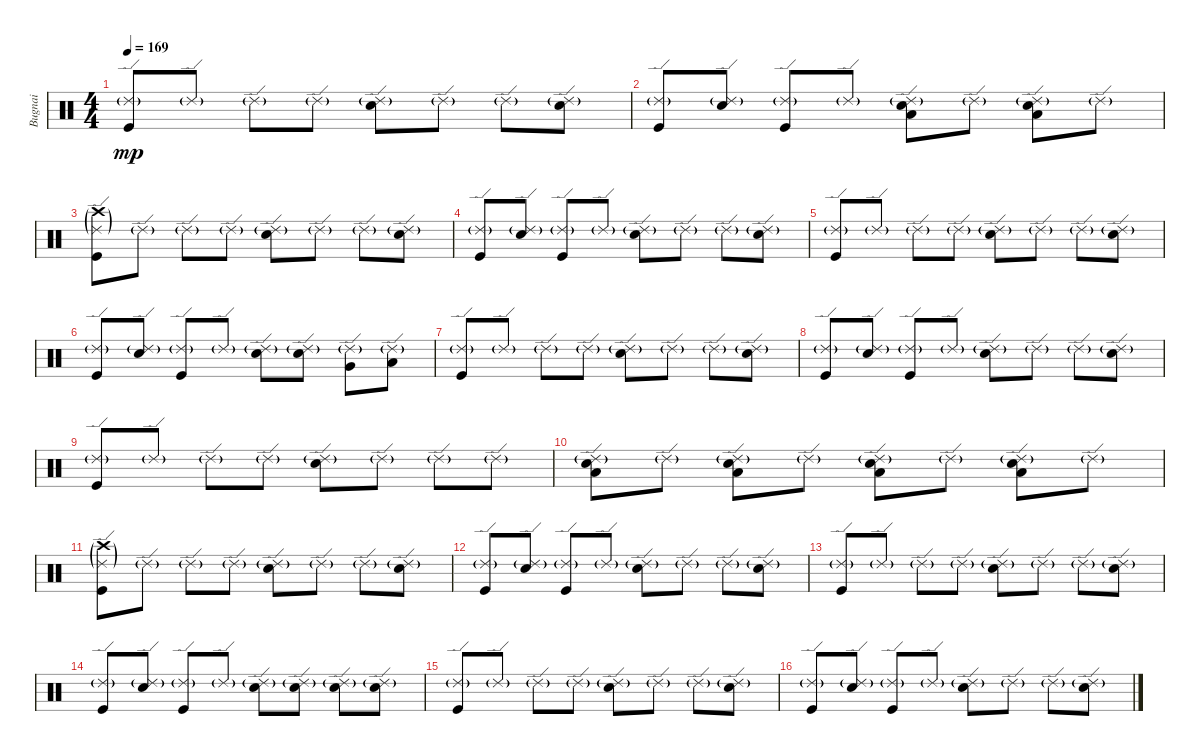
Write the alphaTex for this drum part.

\track ("Bugnai" "Bugnai") {instrument percussion}
\staff {score}
\articulation defaults
\ts (4 4)
\tempo 169
\clef neutral
\ks c
("Ride (edge) 2"{g} "Kick (hit)").8{dy mp} "Ride (edge) 2"{g}.8 "Ride (edge) 2"{g}.8 "Ride (edge) 2"{g}.8 ("Ride (edge) 2"{g} "Snare (hit) 2").8 "Ride (edge) 2"{g}.8 "Ride (edge) 2"{g}.8 ("Ride (edge) 2"{g} "Snare (hit) 2").8 |
("Ride (edge) 2"{g} "Kick (hit)").8 ("Ride (edge) 2"{g} "Snare (hit) 2").8 ("Ride (edge) 2"{g} "Kick (hit)").8 "Ride (edge) 2"{g}.8 ("Ride (edge) 2"{g} "Snare (hit) 2" "Low Tom (hit)").8 "Ride (edge) 2"{g}.8 ("Ride (edge) 2"{g} "Snare (hit) 2" "Low Tom (hit)").8 "Ride (edge) 2"{g}.8 |
("Ride (edge) 2"{g} "Crash high (hit)"{g} "Kick (hit)").8 "Ride (edge) 2"{g}.8 "Ride (edge) 2"{g}.8 "Ride (edge) 2"{g}.8 ("Ride (edge) 2"{g} "Snare (hit) 2").8 "Ride (edge) 2"{g}.8 "Ride (edge) 2"{g}.8 ("Ride (edge) 2"{g} "Snare (hit) 2").8 |
("Ride (edge) 2"{g} "Kick (hit)").8 ("Ride (edge) 2"{g} "Snare (hit) 2").8 ("Ride (edge) 2"{g} "Kick (hit)").8 "Ride (edge) 2"{g}.8 ("Ride (edge) 2"{g} "Snare (hit) 2").8 "Ride (edge) 2"{g}.8 "Ride (edge) 2"{g}.8 ("Ride (edge) 2"{g} "Snare (hit) 2").8 |
("Ride (edge) 2"{g} "Kick (hit)").8 "Ride (edge) 2"{g}.8 "Ride (edge) 2"{g}.8 "Ride (edge) 2"{g}.8 ("Ride (edge) 2"{g} "Snare (hit) 2").8 "Ride (edge) 2"{g}.8 "Ride (edge) 2"{g}.8 ("Ride (edge) 2"{g} "Snare (hit) 2").8 |
("Ride (edge) 2"{g} "Kick (hit)").8 ("Ride (edge) 2"{g} "Snare (hit) 2").8 ("Ride (edge) 2"{g} "Kick (hit)").8 "Ride (edge) 2"{g}.8 ("Ride (edge) 2"{g} "Snare (hit) 2").8 ("Ride (edge) 2"{g} "Snare (hit) 2").8 ("Ride (edge) 2"{g} "Very Low Tom (hit)").8 ("Ride (edge) 2"{g} "Low Floor Tom (hit)").8 |
("Ride (edge) 2"{g} "Kick (hit)").8 "Ride (edge) 2"{g}.8 "Ride (edge) 2"{g}.8 "Ride (edge) 2"{g}.8 ("Ride (edge) 2"{g} "Snare (hit) 2").8 "Ride (edge) 2"{g}.8 "Ride (edge) 2"{g}.8 ("Ride (edge) 2"{g} "Snare (hit) 2").8 |
("Ride (edge) 2"{g} "Kick (hit)").8 ("Ride (edge) 2"{g} "Snare (hit) 2").8 ("Ride (edge) 2"{g} "Kick (hit)").8 "Ride (edge) 2"{g}.8 ("Ride (edge) 2"{g} "Snare (hit) 2").8 "Ride (edge) 2"{g}.8 "Ride (edge) 2"{g}.8 ("Ride (edge) 2"{g} "Snare (hit) 2").8 |
("Ride (edge) 2"{g} "Kick (hit)").8 "Ride (edge) 2"{g}.8 "Ride (edge) 2"{g}.8 "Ride (edge) 2"{g}.8 ("Ride (edge) 2"{g} "Snare (hit) 2").8 "Ride (edge) 2"{g}.8 "Ride (edge) 2"{g}.8 "Ride (edge) 2"{g}.8 |
("Ride (edge) 2"{g} "Snare (hit) 2" "Low Tom (hit)").8 "Ride (edge) 2"{g}.8 ("Ride (edge) 2"{g} "Snare (hit) 2" "Low Tom (hit)").8 "Ride (edge) 2"{g}.8 ("Ride (edge) 2"{g} "Snare (hit) 2" "Low Tom (hit)").8 "Ride (edge) 2"{g}.8 ("Ride (edge) 2"{g} "Snare (hit) 2" "Low Tom (hit)").8 "Ride (edge) 2"{g}.8 |
("Ride (edge) 2"{g} "Crash high (hit)"{g} "Kick (hit)").8 "Ride (edge) 2"{g}.8 "Ride (edge) 2"{g}.8 "Ride (edge) 2"{g}.8 ("Ride (edge) 2"{g} "Snare (hit) 2").8 "Ride (edge) 2"{g}.8 "Ride (edge) 2"{g}.8 ("Ride (edge) 2"{g} "Snare (hit) 2").8 |
("Ride (edge) 2"{g} "Kick (hit)").8 ("Ride (edge) 2"{g} "Snare (hit) 2").8 ("Ride (edge) 2"{g} "Kick (hit)").8 "Ride (edge) 2"{g}.8 ("Ride (edge) 2"{g} "Snare (hit) 2").8 "Ride (edge) 2"{g}.8 "Ride (edge) 2"{g}.8 ("Ride (edge) 2"{g} "Snare (hit) 2").8 |
("Ride (edge) 2"{g} "Kick (hit)").8 "Ride (edge) 2"{g}.8 "Ride (edge) 2"{g}.8 "Ride (edge) 2"{g}.8 ("Ride (edge) 2"{g} "Snare (hit) 2").8 "Ride (edge) 2"{g}.8 "Ride (edge) 2"{g}.8 ("Ride (edge) 2"{g} "Snare (hit) 2").8 |
("Ride (edge) 2"{g} "Kick (hit)").8 ("Ride (edge) 2"{g} "Snare (hit) 2").8 ("Ride (edge) 2"{g} "Kick (hit)").8 "Ride (edge) 2"{g}.8 ("Ride (edge) 2"{g} "Snare (hit) 2").8 ("Ride (edge) 2"{g} "Snare (hit) 2").8 ("Ride (edge) 2"{g} "Snare (hit) 2").8 ("Ride (edge) 2"{g} "Snare (hit) 2").8 |
("Ride (edge) 2"{g} "Kick (hit)").8 "Ride (edge) 2"{g}.8 "Ride (edge) 2"{g}.8 "Ride (edge) 2"{g}.8 ("Ride (edge) 2"{g} "Snare (hit) 2").8 "Ride (edge) 2"{g}.8 "Ride (edge) 2"{g}.8 ("Ride (edge) 2"{g} "Snare (hit) 2").8 |
("Ride (edge) 2"{g} "Kick (hit)").8 ("Ride (edge) 2"{g} "Snare (hit) 2").8 ("Ride (edge) 2"{g} "Kick (hit)").8 "Ride (edge) 2"{g}.8 ("Ride (edge) 2"{g} "Snare (hit) 2").8 "Ride (edge) 2"{g}.8 "Ride (edge) 2"{g}.8 ("Ride (edge) 2"{g} "Snare (hit) 2").8
